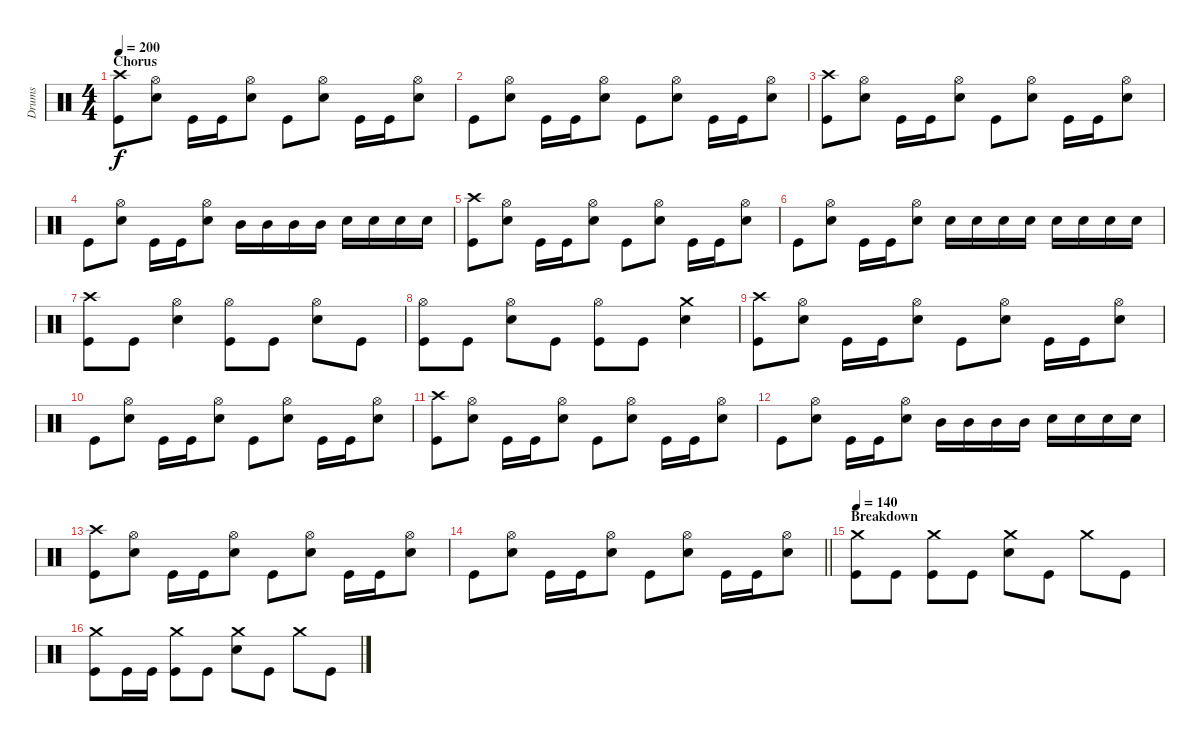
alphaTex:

\track ("Drums" "Drums") {instrument percussion}
\staff {score}
\articulation defaults
\ts (4 4)
\section ("" "Chorus ")
\tempo 200
\clef neutral
\ks c
("Crash high (hit)" "Kick (hit)").8{dy f} ("Hi-Hat (open)" "Snare (hit) 2").8 "Kick (hit)".16 "Kick (hit)".16 ("Hi-Hat (open)" "Snare (hit) 2").8 "Kick (hit)".8 ("Hi-Hat (open)" "Snare (hit) 2").8 "Kick (hit)".16 "Kick (hit)".16 ("Hi-Hat (open)" "Snare (hit) 2").8 |
"Kick (hit)".8 ("Hi-Hat (open)" "Snare (hit) 2").8 "Kick (hit)".16 "Kick (hit)".16 ("Hi-Hat (open)" "Snare (hit) 2").8 "Kick (hit)".8 ("Hi-Hat (open)" "Snare (hit) 2").8 "Kick (hit)".16 "Kick (hit)".16 ("Hi-Hat (open)" "Snare (hit) 2").8 |
("Crash high (hit)" "Kick (hit)").8 ("Hi-Hat (open)" "Snare (hit) 2").8 "Kick (hit)".16 "Kick (hit)".16 ("Hi-Hat (open)" "Snare (hit) 2").8 "Kick (hit)".8 ("Hi-Hat (open)" "Snare (hit) 2").8 "Kick (hit)".16 "Kick (hit)".16 ("Hi-Hat (open)" "Snare (hit) 2").8 |
"Kick (hit)".8 ("Hi-Hat (open)" "Snare (hit) 2").8 "Kick (hit)".16 "Kick (hit)".16 ("Hi-Hat (open)" "Snare (hit) 2").8 "Mid Tom (hit)".16 "Mid Tom (hit)".16 "Mid Tom (hit)".16 "Mid Tom (hit)".16 "Snare (hit) 2".16 "Snare (hit) 2".16 "Snare (hit) 2".16 "Snare (hit) 2".16 |
("Crash high (hit)" "Kick (hit)").8 ("Hi-Hat (open)" "Snare (hit) 2").8 "Kick (hit)".16 "Kick (hit)".16 ("Hi-Hat (open)" "Snare (hit) 2").8 "Kick (hit)".8 ("Hi-Hat (open)" "Snare (hit) 2").8 "Kick (hit)".16 "Kick (hit)".16 ("Hi-Hat (open)" "Snare (hit) 2").8 |
"Kick (hit)".8 ("Hi-Hat (open)" "Snare (hit) 2").8 "Kick (hit)".16 "Kick (hit)".16 ("Hi-Hat (open)" "Snare (hit) 2").8 "Snare (hit) 2".16 "Snare (hit) 2".16 "Snare (hit) 2".16 "Snare (hit) 2".16 "Snare (hit) 2".16 "Snare (hit) 2".16 "Snare (hit) 2".16 "Snare (hit) 2".16 |
("Crash high (hit)" "Kick (hit)").8 "Kick (hit)".8 ("Hi-Hat (open)" "Snare (hit) 2").4 ("Hi-Hat (open)" "Kick (hit)").8 "Kick (hit)".8 ("Hi-Hat (open)" "Snare (hit) 2").8 "Kick (hit)".8 |
("Hi-Hat (open)" "Kick (hit)").8 "Kick (hit)".8 ("Hi-Hat (open)" "Snare (hit) 2").8 "Kick (hit)".8 ("Hi-Hat (open)" "Kick (hit)").8 "Kick (hit)".8 ("Crash medium (hit)" "Snare (hit) 2").4 |
("Crash high (hit)" "Kick (hit)").8 ("Hi-Hat (open)" "Snare (hit) 2").8 "Kick (hit)".16 "Kick (hit)".16 ("Hi-Hat (open)" "Snare (hit) 2").8 "Kick (hit)".8 ("Hi-Hat (open)" "Snare (hit) 2").8 "Kick (hit)".16 "Kick (hit)".16 ("Hi-Hat (open)" "Snare (hit) 2").8 |
"Kick (hit)".8 ("Hi-Hat (open)" "Snare (hit) 2").8 "Kick (hit)".16 "Kick (hit)".16 ("Hi-Hat (open)" "Snare (hit) 2").8 "Kick (hit)".8 ("Hi-Hat (open)" "Snare (hit) 2").8 "Kick (hit)".16 "Kick (hit)".16 ("Hi-Hat (open)" "Snare (hit) 2").8 |
("Crash high (hit)" "Kick (hit)").8 ("Hi-Hat (open)" "Snare (hit) 2").8 "Kick (hit)".16 "Kick (hit)".16 ("Hi-Hat (open)" "Snare (hit) 2").8 "Kick (hit)".8 ("Hi-Hat (open)" "Snare (hit) 2").8 "Kick (hit)".16 "Kick (hit)".16 ("Hi-Hat (open)" "Snare (hit) 2").8 |
"Kick (hit)".8 ("Hi-Hat (open)" "Snare (hit) 2").8 "Kick (hit)".16 "Kick (hit)".16 ("Hi-Hat (open)" "Snare (hit) 2").8 "Mid Tom (hit)".16 "Mid Tom (hit)".16 "Mid Tom (hit)".16 "Mid Tom (hit)".16 "Snare (hit) 2".16 "Snare (hit) 2".16 "Snare (hit) 2".16 "Snare (hit) 2".16 |
("Crash high (hit)" "Kick (hit)").8 ("Hi-Hat (open)" "Snare (hit) 2").8 "Kick (hit)".16 "Kick (hit)".16 ("Hi-Hat (open)" "Snare (hit) 2").8 "Kick (hit)".8 ("Hi-Hat (open)" "Snare (hit) 2").8 "Kick (hit)".16 "Kick (hit)".16 ("Hi-Hat (open)" "Snare (hit) 2").8 |
\barLineRight lightlight "Kick (hit)".8
("Hi-Hat (open)" "Snare (hit) 2").8 "Kick (hit)".16 "Kick (hit)".16 ("Hi-Hat (open)" "Snare (hit) 2").8 "Kick (hit)".8 ("Hi-Hat (open)" "Snare (hit) 2").8 "Kick (hit)".16 "Kick (hit)".16 ("Hi-Hat (open)" "Snare (hit) 2").8 |
\section ("" "Breakdown")
\tempo 140
("Crash medium (hit)" "Kick (hit)").8 "Kick (hit)".8 ("Crash medium (hit)" "Kick (hit)").8 "Kick (hit)".8 ("Crash medium (hit)" "Snare (hit) 2").8 "Kick (hit)".8 "Crash medium (hit)".8 "Kick (hit)".8 |
("Crash medium (hit)" "Kick (hit)").8 "Kick (hit)".16 "Kick (hit)".16 ("Crash medium (hit)" "Kick (hit)").8 "Kick (hit)".8 ("Crash medium (hit)" "Snare (hit) 2").8 "Kick (hit)".8 "Crash medium (hit)".8 "Kick (hit)".8
